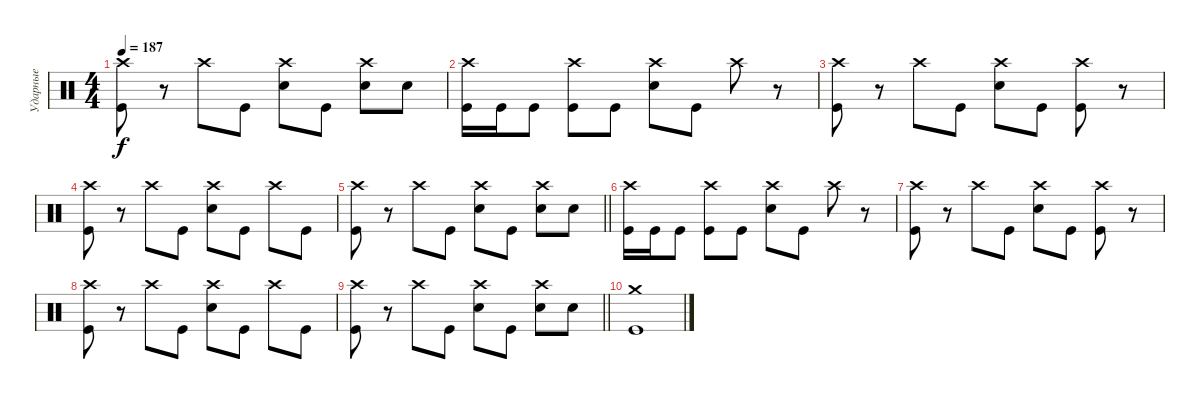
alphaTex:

\track ("Ударные" "Ударные") {instrument percussion}
\staff {score}
\articulation defaults
\ts (4 4)
\tempo 187
\clef neutral
\ks c
("Crash high (hit)" "Kick (hit)").8{dy f} r.8 "Crash high (hit)".8 "Kick (hit)".8 ("Crash high (hit)" "Electric Snare (hit)").8 "Kick (hit)".8 ("Crash high (hit)" "Electric Snare (hit)").8 "Electric Snare (hit)".8 |
("Crash high (hit)" "Kick (hit)").16 "Kick (hit)".16 "Kick (hit)".8 ("Crash high (hit)" "Kick (hit)").8 "Kick (hit)".8 ("Crash high (hit)" "Electric Snare (hit)").8 "Kick (hit)".8 "Crash high (hit)".8 r.8 |
("Crash high (hit)" "Kick (hit)").8 r.8 "Crash high (hit)".8 "Kick (hit)".8 ("Crash high (hit)" "Electric Snare (hit)").8 "Kick (hit)".8 ("Crash high (hit)" "Kick (hit)").8 r.8 |
("Crash high (hit)" "Kick (hit)").8 r.8 "Crash high (hit)".8 "Kick (hit)".8 ("Crash high (hit)" "Electric Snare (hit)").8 "Kick (hit)".8 "Crash high (hit)".8 "Kick (hit)".8 |
\barLineRight lightlight
("Crash high (hit)" "Kick (hit)").8 r.8 "Crash high (hit)".8 "Kick (hit)".8 ("Crash high (hit)" "Electric Snare (hit)").8 "Kick (hit)".8 ("Crash high (hit)" "Electric Snare (hit)").8 "Electric Snare (hit)".8 |
("Crash high (hit)" "Kick (hit)").16 "Kick (hit)".16 "Kick (hit)".8 ("Crash high (hit)" "Kick (hit)").8 "Kick (hit)".8 ("Crash high (hit)" "Electric Snare (hit)").8 "Kick (hit)".8 "Crash high (hit)".8 r.8 |
("Crash high (hit)" "Kick (hit)").8 r.8 "Crash high (hit)".8 "Kick (hit)".8 ("Crash high (hit)" "Electric Snare (hit)").8 "Kick (hit)".8 ("Crash high (hit)" "Kick (hit)").8 r.8 |
("Crash high (hit)" "Kick (hit)").8 r.8 "Crash high (hit)".8 "Kick (hit)".8 ("Crash high (hit)" "Electric Snare (hit)").8 "Kick (hit)".8 "Crash high (hit)".8 "Kick (hit)".8 |
\barLineRight lightlight
("Crash high (hit)" "Kick (hit)").8 r.8 "Crash high (hit)".8 "Kick (hit)".8 ("Crash high (hit)" "Electric Snare (hit)").8 "Kick (hit)".8 ("Crash high (hit)" "Electric Snare (hit)").8 "Electric Snare (hit)".8 |
("Crash medium (hit)" "Kick (hit)").1
